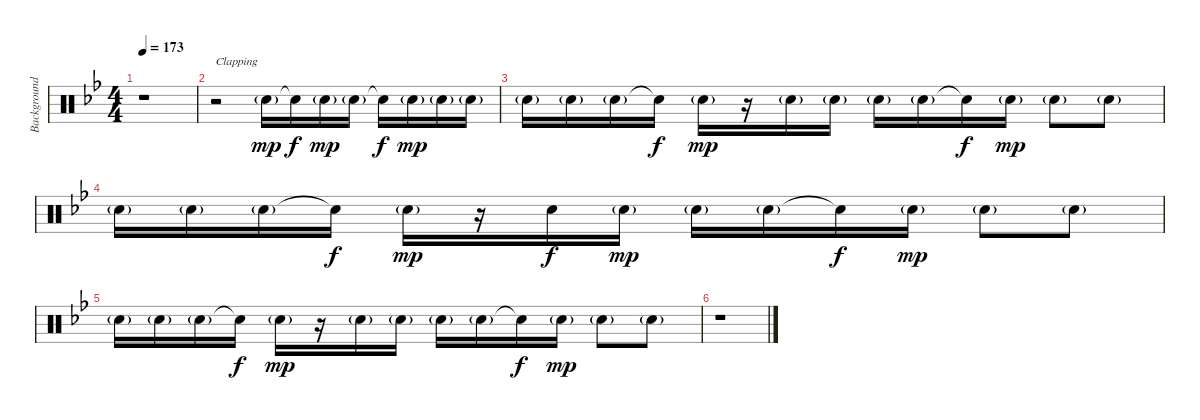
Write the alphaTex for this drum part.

\track ("Background percussion" "Background") {instrument percussion}
\staff {score}
\articulation defaults
\ts (4 4)
\tempo 173
\clef neutral
\ks bb
r.1{dy mp} |
r.2{txt "Clapping "} "Hand Clap (hit)"{g}.16 "Hand Clap (hit)"{t}.16{dy f} "Hand Clap (hit)"{g}.16{dy mp} "Hand Clap (hit)"{g}.16 "Hand Clap (hit)"{t}.16{dy f} "Hand Clap (hit)"{g}.16{dy mp} "Hand Clap (hit)"{g}.16 "Hand Clap (hit)"{g}.16 |
"Hand Clap (hit)"{g}.16 "Hand Clap (hit)"{g}.16 "Hand Clap (hit)"{g}.16 "Hand Clap (hit)"{t}.16{dy f} "Hand Clap (hit)"{g}.16{dy mp} r.16 "Hand Clap (hit)"{g}.16 "Hand Clap (hit)"{g}.16 "Hand Clap (hit)"{g}.16 "Hand Clap (hit)"{g}.16 "Snare (hit)"{t}.16{dy f} "Hand Clap (hit)"{g}.16{dy mp volume 0} "Hand Clap (hit)"{g}.8 "Hand Clap (hit)"{g}.8 |
"Hand Clap (hit)"{g}.16 "Hand Clap (hit)"{g}.16 "Hand Clap (hit)"{g}.16 "Hand Clap (hit)"{t}.16{dy f} "Hand Clap (hit)"{g}.16{dy mp} r.16 "Hand Clap (hit)".16{dy f} "Hand Clap (hit)"{g}.16{dy mp} "Hand Clap (hit)"{g}.16 "Hand Clap (hit)"{g}.16 "Snare (hit)"{t}.16{dy f} "Hand Clap (hit)"{g}.16{dy mp} "Hand Clap (hit)"{g}.8 "Hand Clap (hit)"{g}.8 |
"Hand Clap (hit)"{g}.16 "Hand Clap (hit)"{g}.16 "Hand Clap (hit)"{g}.16 "Hand Clap (hit)"{t}.16{dy f} "Hand Clap (hit)"{g}.16{dy mp} r.16 "Hand Clap (hit)"{g}.16 "Hand Clap (hit)"{g}.16 "Hand Clap (hit)"{g}.16 "Hand Clap (hit)"{g}.16 "Snare (hit)"{t}.16{dy f} "Hand Clap (hit)"{g}.16{dy mp} "Hand Clap (hit)"{g}.8 "Hand Clap (hit)"{g}.8 |
r.1
